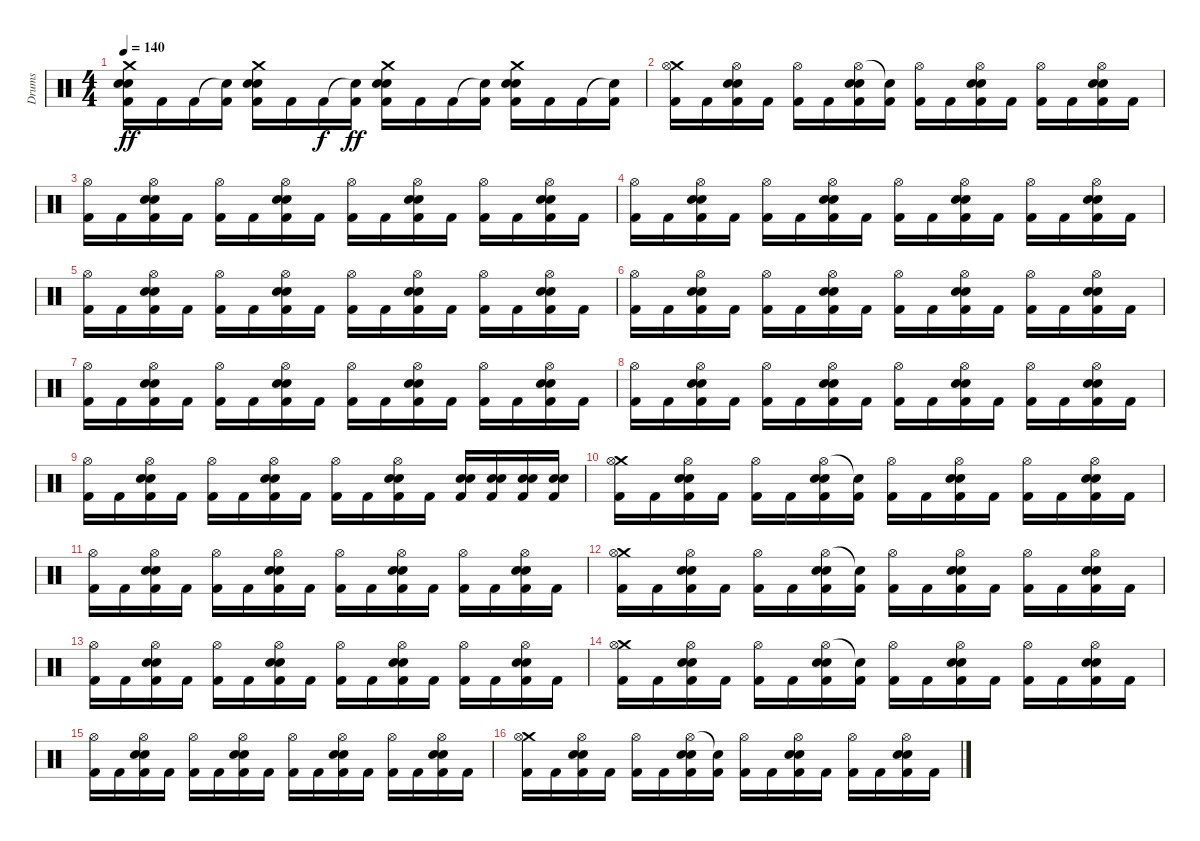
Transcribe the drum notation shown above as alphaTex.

\track ("Drums" "Drums") {instrument percussion}
\staff {score}
\articulation defaults
\ts (4 4)
\tempo 140
\clef neutral
\ks c
("Crash medium (hit)" "Electric Snare (hit)" "Electric Snare (hit)" "Kick (hit) 2").16{dy ff} "Kick (hit) 2".16 "Kick (hit) 2".16 ("Snare (hit)"{t} "Kick (hit) 2").16 ("Crash medium (hit)" "Electric Snare (hit)" "Electric Snare (hit)" "Kick (hit) 2").16 "Kick (hit) 2".16 "Kick (hit) 2".16{dy f} ("Snare (hit)"{t} "Kick (hit) 2").16{dy ff} ("Crash medium (hit)" "Electric Snare (hit)" "Electric Snare (hit)" "Kick (hit) 2").16 "Kick (hit) 2".16 "Kick (hit) 2".16 ("Snare (hit)"{t} "Kick (hit) 2").16 ("Crash medium (hit)" "Electric Snare (hit)" "Electric Snare (hit)" "Kick (hit) 2").16 "Kick (hit) 2".16 "Kick (hit) 2".16 ("Snare (hit)"{t} "Kick (hit) 2").16 |
("Crash medium (hit)" "Hi-Hat (open)" "Kick (hit) 2").16 "Kick (hit) 2".16 ("Hi-Hat (open)" "Electric Snare (hit)" "Electric Snare (hit)" "Kick (hit) 2").16 "Kick (hit) 2".16 ("Hi-Hat (open)" "Kick (hit) 2").16 "Kick (hit) 2".16 ("Hi-Hat (open)" "Electric Snare (hit)" "Electric Snare (hit)" "Kick (hit) 2").16 ("Snare (hit)"{t} "Kick (hit) 2").16 ("Hi-Hat (open)" "Kick (hit) 2").16 "Kick (hit) 2".16 ("Hi-Hat (open)" "Electric Snare (hit)" "Electric Snare (hit)" "Kick (hit) 2").16 "Kick (hit) 2".16 ("Hi-Hat (open)" "Kick (hit) 2").16 "Kick (hit) 2".16 ("Hi-Hat (open)" "Electric Snare (hit)" "Electric Snare (hit)" "Kick (hit) 2").16 "Kick (hit) 2".16 |
("Hi-Hat (open)" "Kick (hit) 2").16 "Kick (hit) 2".16 ("Hi-Hat (open)" "Electric Snare (hit)" "Electric Snare (hit)" "Kick (hit) 2").16 "Kick (hit) 2".16 ("Hi-Hat (open)" "Kick (hit) 2").16 "Kick (hit) 2".16 ("Hi-Hat (open)" "Electric Snare (hit)" "Electric Snare (hit)" "Kick (hit) 2").16 "Kick (hit) 2".16 ("Hi-Hat (open)" "Kick (hit) 2").16 "Kick (hit) 2".16 ("Hi-Hat (open)" "Electric Snare (hit)" "Electric Snare (hit)" "Kick (hit) 2").16 "Kick (hit) 2".16 ("Hi-Hat (open)" "Kick (hit) 2").16 "Kick (hit) 2".16 ("Hi-Hat (open)" "Electric Snare (hit)" "Electric Snare (hit)" "Kick (hit) 2").16 "Kick (hit) 2".16 |
("Hi-Hat (open)" "Kick (hit) 2").16 "Kick (hit) 2".16 ("Hi-Hat (open)" "Electric Snare (hit)" "Electric Snare (hit)" "Kick (hit) 2").16 "Kick (hit) 2".16 ("Hi-Hat (open)" "Kick (hit) 2").16 "Kick (hit) 2".16 ("Hi-Hat (open)" "Electric Snare (hit)" "Electric Snare (hit)" "Kick (hit) 2").16 "Kick (hit) 2".16 ("Hi-Hat (open)" "Kick (hit) 2").16 "Kick (hit) 2".16 ("Hi-Hat (open)" "Electric Snare (hit)" "Electric Snare (hit)" "Kick (hit) 2").16 "Kick (hit) 2".16 ("Hi-Hat (open)" "Kick (hit) 2").16 "Kick (hit) 2".16 ("Hi-Hat (open)" "Electric Snare (hit)" "Electric Snare (hit)" "Kick (hit) 2").16 "Kick (hit) 2".16 |
("Hi-Hat (open)" "Kick (hit) 2").16 "Kick (hit) 2".16 ("Hi-Hat (open)" "Electric Snare (hit)" "Electric Snare (hit)" "Kick (hit) 2").16 "Kick (hit) 2".16 ("Hi-Hat (open)" "Kick (hit) 2").16 "Kick (hit) 2".16 ("Hi-Hat (open)" "Electric Snare (hit)" "Electric Snare (hit)" "Kick (hit) 2").16 "Kick (hit) 2".16 ("Hi-Hat (open)" "Kick (hit) 2").16 "Kick (hit) 2".16 ("Hi-Hat (open)" "Electric Snare (hit)" "Electric Snare (hit)" "Kick (hit) 2").16 "Kick (hit) 2".16 ("Hi-Hat (open)" "Kick (hit) 2").16 "Kick (hit) 2".16 ("Hi-Hat (open)" "Electric Snare (hit)" "Electric Snare (hit)" "Kick (hit) 2").16 "Kick (hit) 2".16 |
("Hi-Hat (open)" "Kick (hit) 2").16 "Kick (hit) 2".16 ("Hi-Hat (open)" "Electric Snare (hit)" "Electric Snare (hit)" "Kick (hit) 2").16 "Kick (hit) 2".16 ("Hi-Hat (open)" "Kick (hit) 2").16 "Kick (hit) 2".16 ("Hi-Hat (open)" "Electric Snare (hit)" "Electric Snare (hit)" "Kick (hit) 2").16 "Kick (hit) 2".16 ("Hi-Hat (open)" "Kick (hit) 2").16 "Kick (hit) 2".16 ("Hi-Hat (open)" "Electric Snare (hit)" "Electric Snare (hit)" "Kick (hit) 2").16 "Kick (hit) 2".16 ("Hi-Hat (open)" "Kick (hit) 2").16 "Kick (hit) 2".16 ("Hi-Hat (open)" "Electric Snare (hit)" "Electric Snare (hit)" "Kick (hit) 2").16 "Kick (hit) 2".16 |
("Hi-Hat (open)" "Kick (hit) 2").16 "Kick (hit) 2".16 ("Hi-Hat (open)" "Electric Snare (hit)" "Electric Snare (hit)" "Kick (hit) 2").16 "Kick (hit) 2".16 ("Hi-Hat (open)" "Kick (hit) 2").16 "Kick (hit) 2".16 ("Hi-Hat (open)" "Electric Snare (hit)" "Electric Snare (hit)" "Kick (hit) 2").16 "Kick (hit) 2".16 ("Hi-Hat (open)" "Kick (hit) 2").16 "Kick (hit) 2".16 ("Hi-Hat (open)" "Electric Snare (hit)" "Electric Snare (hit)" "Kick (hit) 2").16 "Kick (hit) 2".16 ("Hi-Hat (open)" "Kick (hit) 2").16 "Kick (hit) 2".16 ("Hi-Hat (open)" "Electric Snare (hit)" "Electric Snare (hit)" "Kick (hit) 2").16 "Kick (hit) 2".16 |
("Hi-Hat (open)" "Kick (hit) 2").16 "Kick (hit) 2".16 ("Hi-Hat (open)" "Electric Snare (hit)" "Electric Snare (hit)" "Kick (hit) 2").16 "Kick (hit) 2".16 ("Hi-Hat (open)" "Kick (hit) 2").16 "Kick (hit) 2".16 ("Hi-Hat (open)" "Electric Snare (hit)" "Electric Snare (hit)" "Kick (hit) 2").16 "Kick (hit) 2".16 ("Hi-Hat (open)" "Kick (hit) 2").16 "Kick (hit) 2".16 ("Hi-Hat (open)" "Electric Snare (hit)" "Electric Snare (hit)" "Kick (hit) 2").16 "Kick (hit) 2".16 ("Hi-Hat (open)" "Kick (hit) 2").16 "Kick (hit) 2".16 ("Hi-Hat (open)" "Electric Snare (hit)" "Electric Snare (hit)" "Kick (hit) 2").16 "Kick (hit) 2".16 |
("Hi-Hat (open)" "Kick (hit) 2").16 "Kick (hit) 2".16 ("Hi-Hat (open)" "Electric Snare (hit)" "Electric Snare (hit)" "Kick (hit) 2").16 "Kick (hit) 2".16 ("Hi-Hat (open)" "Kick (hit) 2").16 "Kick (hit) 2".16 ("Hi-Hat (open)" "Electric Snare (hit)" "Electric Snare (hit)" "Kick (hit) 2").16 "Kick (hit) 2".16 ("Hi-Hat (open)" "Kick (hit) 2").16 "Kick (hit) 2".16 ("Hi-Hat (open)" "Electric Snare (hit)" "Electric Snare (hit)" "Kick (hit) 2").16 "Kick (hit) 2".16 ("Electric Snare (hit)" "Electric Snare (hit)" "Kick (hit) 2").16 ("Electric Snare (hit)" "Electric Snare (hit)" "Kick (hit) 2").16 ("Electric Snare (hit)" "Electric Snare (hit)" "Kick (hit) 2").16 ("Electric Snare (hit)" "Electric Snare (hit)" "Kick (hit) 2").16 |
("Crash medium (hit)" "Hi-Hat (open)" "Kick (hit) 2").16 "Kick (hit) 2".16 ("Hi-Hat (open)" "Electric Snare (hit)" "Electric Snare (hit)" "Kick (hit) 2").16 "Kick (hit) 2".16 ("Hi-Hat (open)" "Kick (hit) 2").16 "Kick (hit) 2".16 ("Hi-Hat (open)" "Electric Snare (hit)" "Electric Snare (hit)" "Kick (hit) 2").16 ("Snare (hit)"{t} "Kick (hit) 2").16 ("Hi-Hat (open)" "Kick (hit) 2").16 "Kick (hit) 2".16 ("Hi-Hat (open)" "Electric Snare (hit)" "Electric Snare (hit)" "Kick (hit) 2").16 "Kick (hit) 2".16 ("Hi-Hat (open)" "Kick (hit) 2").16 "Kick (hit) 2".16 ("Hi-Hat (open)" "Electric Snare (hit)" "Electric Snare (hit)" "Kick (hit) 2").16 "Kick (hit) 2".16 |
("Hi-Hat (open)" "Kick (hit) 2").16 "Kick (hit) 2".16 ("Hi-Hat (open)" "Electric Snare (hit)" "Electric Snare (hit)" "Kick (hit) 2").16 "Kick (hit) 2".16 ("Hi-Hat (open)" "Kick (hit) 2").16 "Kick (hit) 2".16 ("Hi-Hat (open)" "Electric Snare (hit)" "Electric Snare (hit)" "Kick (hit) 2").16 "Kick (hit) 2".16 ("Hi-Hat (open)" "Kick (hit) 2").16 "Kick (hit) 2".16 ("Hi-Hat (open)" "Electric Snare (hit)" "Electric Snare (hit)" "Kick (hit) 2").16 "Kick (hit) 2".16 ("Hi-Hat (open)" "Kick (hit) 2").16 "Kick (hit) 2".16 ("Hi-Hat (open)" "Electric Snare (hit)" "Electric Snare (hit)" "Kick (hit) 2").16 "Kick (hit) 2".16 |
("Crash medium (hit)" "Hi-Hat (open)" "Kick (hit) 2").16 "Kick (hit) 2".16 ("Hi-Hat (open)" "Electric Snare (hit)" "Electric Snare (hit)" "Kick (hit) 2").16 "Kick (hit) 2".16 ("Hi-Hat (open)" "Kick (hit) 2").16 "Kick (hit) 2".16 ("Hi-Hat (open)" "Electric Snare (hit)" "Electric Snare (hit)" "Kick (hit) 2").16 ("Snare (hit)"{t} "Kick (hit) 2").16 ("Hi-Hat (open)" "Kick (hit) 2").16 "Kick (hit) 2".16 ("Hi-Hat (open)" "Electric Snare (hit)" "Electric Snare (hit)" "Kick (hit) 2").16 "Kick (hit) 2".16 ("Hi-Hat (open)" "Kick (hit) 2").16 "Kick (hit) 2".16 ("Hi-Hat (open)" "Electric Snare (hit)" "Electric Snare (hit)" "Kick (hit) 2").16 "Kick (hit) 2".16 |
("Hi-Hat (open)" "Kick (hit) 2").16 "Kick (hit) 2".16 ("Hi-Hat (open)" "Electric Snare (hit)" "Electric Snare (hit)" "Kick (hit) 2").16 "Kick (hit) 2".16 ("Hi-Hat (open)" "Kick (hit) 2").16 "Kick (hit) 2".16 ("Hi-Hat (open)" "Electric Snare (hit)" "Electric Snare (hit)" "Kick (hit) 2").16 "Kick (hit) 2".16 ("Hi-Hat (open)" "Kick (hit) 2").16 "Kick (hit) 2".16 ("Hi-Hat (open)" "Electric Snare (hit)" "Electric Snare (hit)" "Kick (hit) 2").16 "Kick (hit) 2".16 ("Hi-Hat (open)" "Kick (hit) 2").16 "Kick (hit) 2".16 ("Hi-Hat (open)" "Electric Snare (hit)" "Electric Snare (hit)" "Kick (hit) 2").16 "Kick (hit) 2".16 |
("Crash medium (hit)" "Hi-Hat (open)" "Kick (hit) 2").16 "Kick (hit) 2".16 ("Hi-Hat (open)" "Electric Snare (hit)" "Electric Snare (hit)" "Kick (hit) 2").16 "Kick (hit) 2".16 ("Hi-Hat (open)" "Kick (hit) 2").16 "Kick (hit) 2".16 ("Hi-Hat (open)" "Electric Snare (hit)" "Electric Snare (hit)" "Kick (hit) 2").16 ("Snare (hit)"{t} "Kick (hit) 2").16 ("Hi-Hat (open)" "Kick (hit) 2").16 "Kick (hit) 2".16 ("Hi-Hat (open)" "Electric Snare (hit)" "Electric Snare (hit)" "Kick (hit) 2").16 "Kick (hit) 2".16 ("Hi-Hat (open)" "Kick (hit) 2").16 "Kick (hit) 2".16 ("Hi-Hat (open)" "Electric Snare (hit)" "Electric Snare (hit)" "Kick (hit) 2").16 "Kick (hit) 2".16 |
("Hi-Hat (open)" "Kick (hit) 2").16 "Kick (hit) 2".16 ("Hi-Hat (open)" "Electric Snare (hit)" "Electric Snare (hit)" "Kick (hit) 2").16 "Kick (hit) 2".16 ("Hi-Hat (open)" "Kick (hit) 2").16 "Kick (hit) 2".16 ("Hi-Hat (open)" "Electric Snare (hit)" "Electric Snare (hit)" "Kick (hit) 2").16 "Kick (hit) 2".16 ("Hi-Hat (open)" "Kick (hit) 2").16 "Kick (hit) 2".16 ("Hi-Hat (open)" "Electric Snare (hit)" "Electric Snare (hit)" "Kick (hit) 2").16 "Kick (hit) 2".16 ("Hi-Hat (open)" "Kick (hit) 2").16 "Kick (hit) 2".16 ("Hi-Hat (open)" "Electric Snare (hit)" "Electric Snare (hit)" "Kick (hit) 2").16 "Kick (hit) 2".16 |
("Crash medium (hit)" "Hi-Hat (open)" "Kick (hit) 2").16 "Kick (hit) 2".16 ("Hi-Hat (open)" "Electric Snare (hit)" "Electric Snare (hit)" "Kick (hit) 2").16 "Kick (hit) 2".16 ("Hi-Hat (open)" "Kick (hit) 2").16 "Kick (hit) 2".16 ("Hi-Hat (open)" "Electric Snare (hit)" "Electric Snare (hit)" "Kick (hit) 2").16 ("Snare (hit)"{t} "Kick (hit) 2").16 ("Hi-Hat (open)" "Kick (hit) 2").16 "Kick (hit) 2".16 ("Hi-Hat (open)" "Electric Snare (hit)" "Electric Snare (hit)" "Kick (hit) 2").16 "Kick (hit) 2".16 ("Hi-Hat (open)" "Kick (hit) 2").16 "Kick (hit) 2".16 ("Hi-Hat (open)" "Electric Snare (hit)" "Electric Snare (hit)" "Kick (hit) 2").16 "Kick (hit) 2".16
